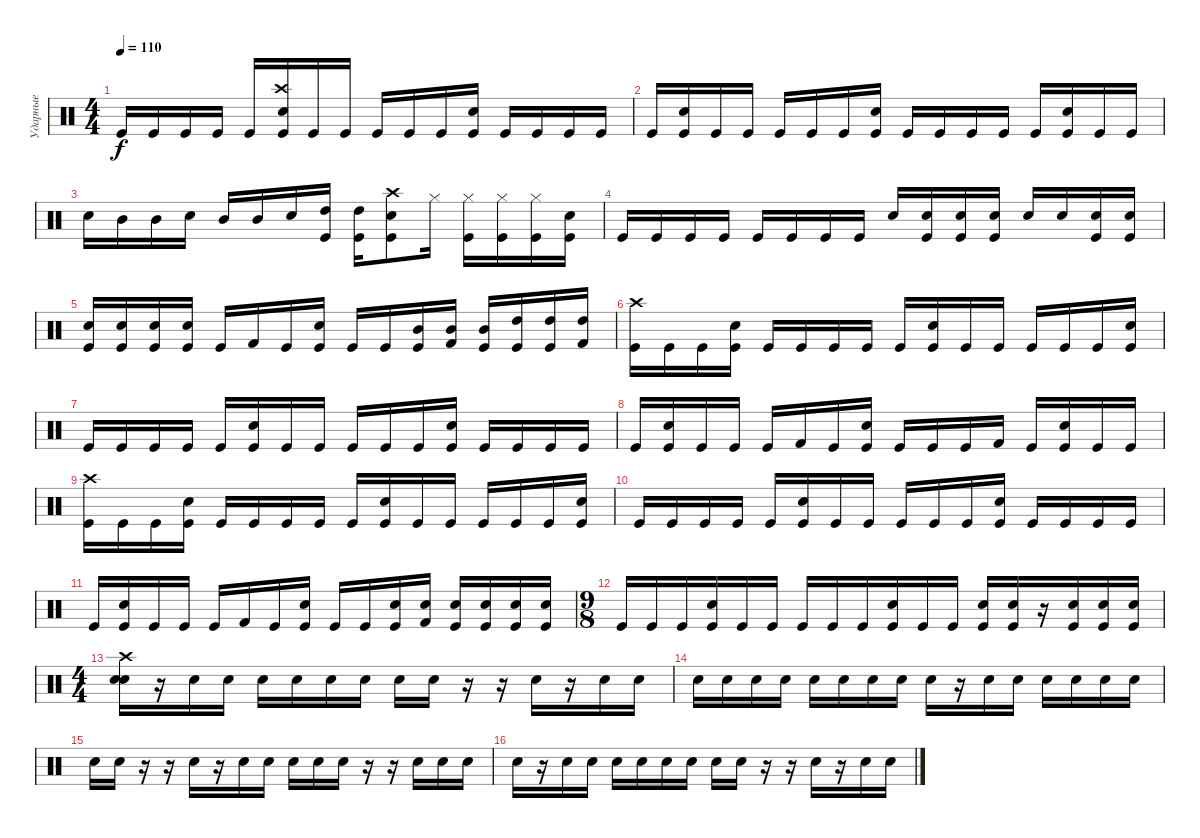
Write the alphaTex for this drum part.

\track ("Ударные" "Ударные") {instrument percussion}
\staff {score}
\articulation defaults
\ts (4 4)
\tempo 110
\clef neutral
\ks c "Kick (hit)".16{dy f} "Kick (hit)".16 "Kick (hit)".16 "Kick (hit)".16 "Kick (hit)".16
("Crash high (hit)" "Electric Snare (hit)" "Kick (hit)").16 "Kick (hit)".16 "Kick (hit)".16 "Kick (hit)".16 "Kick (hit)".16 "Kick (hit)".16 ("Electric Snare (hit)" "Kick (hit)").16 "Kick (hit)".16 "Kick (hit)".16 "Kick (hit)".16 "Kick (hit)".16 |
"Kick (hit)".16 ("Electric Snare (hit)" "Kick (hit)").16 "Kick (hit)".16 "Kick (hit)".16 "Kick (hit)".16 "Kick (hit)".16 "Kick (hit)".16 ("Electric Snare (hit)" "Kick (hit)").16 "Kick (hit)".16 "Kick (hit)".16 "Kick (hit)".16 "Kick (hit)".16 "Kick (hit)".16 ("Electric Snare (hit)" "Kick (hit)").16 "Kick (hit)".16 "Kick (hit)".16 |
"Electric Snare (hit)".16 "Mid Tom (hit)".16 "Mid Tom (hit)".16 "Electric Snare (hit)".16 "Mid Tom (hit)".16 "Mid Tom (hit)".16 "Electric Snare (hit)".16 ("High Tom (hit)" "Kick (hit)").16 ("High Tom (hit)" "Kick (hit)").16 ("Crash high (hit)" "Electric Snare (hit)" "Kick (hit)").8 "Hi-Hat (closed)".16 ("Hi-Hat (closed)" "Kick (hit)").16 ("Hi-Hat (closed)" "Kick (hit)").16 ("Hi-Hat (closed)" "Kick (hit)").16 ("Electric Snare (hit)" "Kick (hit)").16 |
"Kick (hit)".16 "Kick (hit)".16 "Kick (hit)".16 "Kick (hit)".16 "Kick (hit)".16 "Kick (hit)".16 "Kick (hit)".16 "Kick (hit)".16 "Electric Snare (hit)".16 ("Electric Snare (hit)" "Kick (hit)").16 ("Electric Snare (hit)" "Kick (hit)").16 ("Electric Snare (hit)" "Kick (hit)").16 "Electric Snare (hit)".16 "Electric Snare (hit)".16 ("Electric Snare (hit)" "Kick (hit)").16 ("Electric Snare (hit)" "Kick (hit)").16 |
("Electric Snare (hit)" "Kick (hit)").16 ("Electric Snare (hit)" "Kick (hit)").16 ("Electric Snare (hit)" "Kick (hit)").16 ("Electric Snare (hit)" "Kick (hit)").16 "Kick (hit)".16 "Kick (hit) 2".16 "Kick (hit)".16 ("Electric Snare (hit)" "Kick (hit)").16 "Kick (hit)".16 "Kick (hit)".16 ("Mid Tom (hit)" "Kick (hit)").16 ("Mid Tom (hit)" "Kick (hit) 2").16 ("Mid Tom (hit)" "Kick (hit)").16 ("High Tom (hit)" "Kick (hit)").16 ("High Tom (hit)" "Kick (hit)").16 ("High Tom (hit)" "Kick (hit) 2").16 |
("Crash high (hit)" "Kick (hit)").16 "Kick (hit)".16 "Kick (hit)".16 ("Electric Snare (hit)" "Kick (hit)").16 "Kick (hit)".16 "Kick (hit)".16 "Kick (hit)".16 "Kick (hit)".16 "Kick (hit)".16 ("Electric Snare (hit)" "Kick (hit)").16 "Kick (hit)".16 "Kick (hit)".16 "Kick (hit)".16 "Kick (hit)".16 "Kick (hit)".16 ("Electric Snare (hit)" "Kick (hit)").16 |
"Kick (hit)".16 "Kick (hit)".16 "Kick (hit)".16 "Kick (hit)".16 "Kick (hit)".16 ("Electric Snare (hit)" "Kick (hit)").16 "Kick (hit)".16 "Kick (hit)".16 "Kick (hit)".16 "Kick (hit)".16 "Kick (hit)".16 ("Electric Snare (hit)" "Kick (hit)").16 "Kick (hit)".16 "Kick (hit)".16 "Kick (hit)".16 "Kick (hit)".16 |
"Kick (hit)".16 ("Electric Snare (hit)" "Kick (hit)").16 "Kick (hit)".16 "Kick (hit)".16 "Kick (hit)".16 "Kick (hit) 2".16 "Kick (hit)".16 ("Electric Snare (hit)" "Kick (hit)").16 "Kick (hit)".16 "Kick (hit)".16 "Kick (hit)".16 "Kick (hit) 2".16 "Kick (hit)".16 ("Electric Snare (hit)" "Kick (hit)").16 "Kick (hit)".16 "Kick (hit)".16 |
("Crash high (hit)" "Kick (hit)").16 "Kick (hit)".16 "Kick (hit)".16 ("Electric Snare (hit)" "Kick (hit)").16 "Kick (hit)".16 "Kick (hit)".16 "Kick (hit)".16 "Kick (hit)".16 "Kick (hit)".16 ("Electric Snare (hit)" "Kick (hit)").16 "Kick (hit)".16 "Kick (hit)".16 "Kick (hit)".16 "Kick (hit)".16 "Kick (hit)".16 ("Electric Snare (hit)" "Kick (hit)").16 |
"Kick (hit)".16 "Kick (hit)".16 "Kick (hit)".16 "Kick (hit)".16 "Kick (hit)".16 ("Electric Snare (hit)" "Kick (hit)").16 "Kick (hit)".16 "Kick (hit)".16 "Kick (hit)".16 "Kick (hit)".16 "Kick (hit)".16 ("Electric Snare (hit)" "Kick (hit)").16 "Kick (hit)".16 "Kick (hit)".16 "Kick (hit)".16 "Kick (hit)".16 |
"Kick (hit)".16 ("Electric Snare (hit)" "Kick (hit)").16 "Kick (hit)".16 "Kick (hit)".16 "Kick (hit)".16 "Kick (hit) 2".16 "Kick (hit)".16 ("Electric Snare (hit)" "Kick (hit)").16 "Kick (hit)".16 "Kick (hit)".16 ("Electric Snare (hit)" "Kick (hit)").16 ("Electric Snare (hit)" "Kick (hit) 2").16 ("Electric Snare (hit)" "Kick (hit)").16 ("Electric Snare (hit)" "Kick (hit)").16 ("Electric Snare (hit)" "Kick (hit)").16 ("Electric Snare (hit)" "Kick (hit)").16 |
\ts (9 8)
"Kick (hit)".16 "Kick (hit)".16 "Kick (hit)".16 ("Electric Snare (hit)" "Kick (hit)").16 "Kick (hit)".16 "Kick (hit)".16 "Kick (hit)".16 "Kick (hit)".16 "Kick (hit)".16 ("Electric Snare (hit)" "Kick (hit)").16 "Kick (hit)".16 "Kick (hit)".16 ("Electric Snare (hit)" "Kick (hit)").16 ("Electric Snare (hit)" "Kick (hit)").16 r.16 ("Electric Snare (hit)" "Kick (hit)").16 ("Electric Snare (hit)" "Kick (hit)").16 ("Electric Snare (hit)" "Kick (hit)").16 |
\ts (4 4)
("Crash high (hit)" "Electric Snare (hit)" "Electric Snare (hit)").16 r.16 "Electric Snare (hit)".16 "Electric Snare (hit)".16 "Electric Snare (hit)".16 "Electric Snare (hit)".16 "Electric Snare (hit)".16 "Electric Snare (hit)".16 "Electric Snare (hit)".16 "Electric Snare (hit)".16 r.16 r.16 "Electric Snare (hit)".16 r.16 "Electric Snare (hit)".16 "Electric Snare (hit)".16 |
"Electric Snare (hit)".16 "Electric Snare (hit)".16 "Electric Snare (hit)".16 "Electric Snare (hit)".16 "Electric Snare (hit)".16 "Electric Snare (hit)".16 "Electric Snare (hit)".16 "Electric Snare (hit)".16 "Electric Snare (hit)".16 r.16 "Electric Snare (hit)".16 "Electric Snare (hit)".16 "Electric Snare (hit)".16 "Electric Snare (hit)".16 "Electric Snare (hit)".16 "Electric Snare (hit)".16 |
"Electric Snare (hit)".16 "Electric Snare (hit)".16 r.16 r.16 "Electric Snare (hit)".16 r.16 "Electric Snare (hit)".16 "Electric Snare (hit)".16 "Electric Snare (hit)".16 "Electric Snare (hit)".16 "Electric Snare (hit)".16 r.16 r.16 "Electric Snare (hit)".16 "Electric Snare (hit)".16 "Electric Snare (hit)".16 |
"Electric Snare (hit)".16 r.16 "Electric Snare (hit)".16 "Electric Snare (hit)".16 "Electric Snare (hit)".16 "Electric Snare (hit)".16 "Electric Snare (hit)".16 "Electric Snare (hit)".16 "Electric Snare (hit)".16 "Electric Snare (hit)".16 r.16 r.16 "Electric Snare (hit)".16 r.16 "Electric Snare (hit)".16 "Electric Snare (hit)".16
